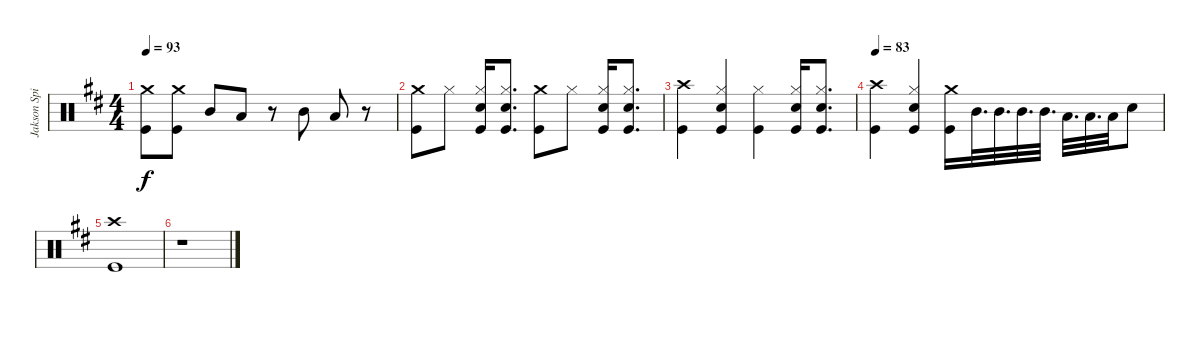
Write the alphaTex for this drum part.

\track ("Jakson Spires Drums" "Jakson Spi") {instrument percussion}
\staff {score}
\articulation defaults
\ts (4 4)
\tempo 93
\clef neutral
\ks bminor
("Crash medium (hit)" "Kick (hit)").8{dy f} ("Crash medium (hit)" "Kick (hit)").8 "Mid Tom (hit)".8 "Low Tom (hit)".8 r.8 "Mid Tom (hit)".8 "Low Tom (hit)".8 r.8 |
("Crash medium (hit)" "Kick (hit)").8 "Hi-Hat (closed)".8 ("Hi-Hat (closed)" "Snare (hit) 2" "Kick (hit)").16 ("Hi-Hat (closed)" "Snare (hit) 2" "Kick (hit)").8{d} ("Crash medium (hit)" "Kick (hit)").8 "Hi-Hat (closed)".8 ("Hi-Hat (closed)" "Snare (hit) 2" "Kick (hit)").16 ("Hi-Hat (closed)" "Snare (hit) 2" "Kick (hit)").8{d} |
("Crash high (hit)" "Kick (hit)").4 ("Hi-Hat (closed)" "Snare (hit) 2" "Kick (hit)").4 ("Hi-Hat (closed)" "Kick (hit)").4 ("Hi-Hat (closed)" "Snare (hit) 2" "Kick (hit)").16 ("Hi-Hat (closed)" "Snare (hit) 2" "Kick (hit)").8{d} |
\tempo 83
("Crash high (hit)" "Kick (hit)").4 ("Hi-Hat (closed)" "Snare (hit) 2" "Kick (hit)").4 ("Crash medium (hit)" "Kick (hit)").16 "Mid Tom (hit)".32{d} "Mid Tom (hit)".32{d} "Mid Tom (hit)".32{d} "Mid Tom (hit)".32{d} "Low Tom (hit)".32{d} "Low Tom (hit)".32{d} "Low Tom (hit)".32 "Snare (hit) 2".8 |
("Crash high (hit)" "Kick (hit)").1 |
r.1
